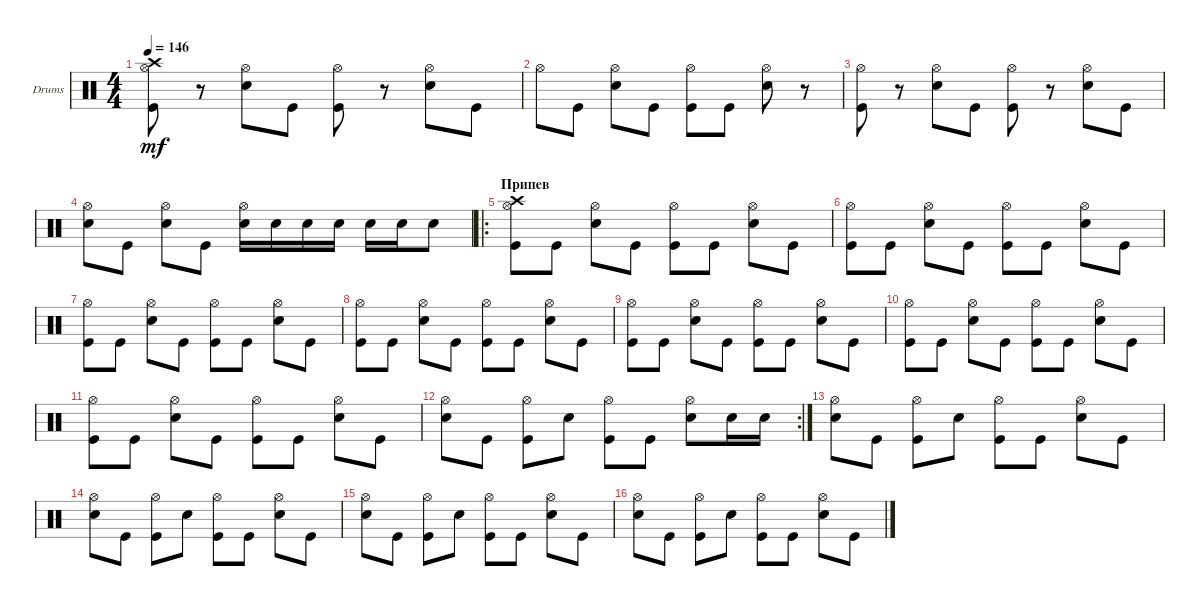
\defaultSystemsLayout 4
\bracketExtendMode groupsimilarinstruments
\firstSystemTrackNameOrientation horizontal
\otherSystemsTrackNameOrientation horizontal
\track ("Drumkit" "Drums") {instrument percussion}
\staff {score}
\articulation defaults
\ts (4 4)
\tempo 146
\clef neutral
\ks c
("Kick (hit)" "Hi-Hat (open)" "Crash high (hit)").8{dy mf} r.8 ("Snare (hit) 2" "Hi-Hat (open)").8 "Kick (hit)".8 ("Kick (hit)" "Hi-Hat (open)").8 r.8 ("Snare (hit) 2" "Hi-Hat (open)").8 "Kick (hit)".8 |
"Hi-Hat (open)".8 "Kick (hit)".8 ("Snare (hit) 2" "Hi-Hat (open)").8 "Kick (hit)".8 ("Hi-Hat (open)" "Kick (hit)").8 "Kick (hit)".8 ("Snare (hit) 2" "Hi-Hat (open)").8 r.8 |
("Kick (hit)" "Hi-Hat (open)").8 r.8 ("Snare (hit) 2" "Hi-Hat (open)").8 "Kick (hit)".8 ("Kick (hit)" "Hi-Hat (open)").8 r.8 ("Snare (hit) 2" "Hi-Hat (open)").8 "Kick (hit)".8 |
("Snare (hit) 2" "Hi-Hat (open)").8 "Kick (hit)".8 ("Snare (hit) 2" "Hi-Hat (open)").8 "Kick (hit)".8 ("Snare (hit) 2" "Hi-Hat (open)").16 "Snare (hit) 2".16 "Snare (hit) 2".16 "Snare (hit) 2".16 "Snare (hit) 2".16 "Snare (hit) 2".16 "Snare (hit) 2".8 |
\ro
\section ("" "Припев")
("Kick (hit)" "Crash high (hit)" "Hi-Hat (open)").8 "Kick (hit)".8 ("Snare (hit) 2" "Hi-Hat (open)").8 "Kick (hit)".8 ("Kick (hit)" "Hi-Hat (open)").8 "Kick (hit)".8 ("Snare (hit) 2" "Hi-Hat (open)").8 "Kick (hit)".8 |
("Kick (hit)" "Hi-Hat (open)").8 "Kick (hit)".8 ("Snare (hit) 2" "Hi-Hat (open)").8 "Kick (hit)".8 ("Kick (hit)" "Hi-Hat (open)").8 "Kick (hit)".8 ("Snare (hit) 2" "Hi-Hat (open)").8 "Kick (hit)".8 |
("Kick (hit)" "Hi-Hat (open)").8 "Kick (hit)".8 ("Snare (hit) 2" "Hi-Hat (open)").8 "Kick (hit)".8 ("Kick (hit)" "Hi-Hat (open)").8 "Kick (hit)".8 ("Snare (hit) 2" "Hi-Hat (open)").8 "Kick (hit)".8 |
("Kick (hit)" "Hi-Hat (open)").8 "Kick (hit)".8 ("Snare (hit) 2" "Hi-Hat (open)").8 "Kick (hit)".8 ("Kick (hit)" "Hi-Hat (open)").8 "Kick (hit)".8 ("Snare (hit) 2" "Hi-Hat (open)").8 "Kick (hit)".8 |
("Kick (hit)" "Hi-Hat (open)").8 "Kick (hit)".8 ("Snare (hit) 2" "Hi-Hat (open)").8 "Kick (hit)".8 ("Kick (hit)" "Hi-Hat (open)").8 "Kick (hit)".8 ("Snare (hit) 2" "Hi-Hat (open)").8 "Kick (hit)".8 |
("Kick (hit)" "Hi-Hat (open)").8 "Kick (hit)".8 ("Snare (hit) 2" "Hi-Hat (open)").8 "Kick (hit)".8 ("Kick (hit)" "Hi-Hat (open)").8 "Kick (hit)".8 ("Snare (hit) 2" "Hi-Hat (open)").8 "Kick (hit)".8 |
("Kick (hit)" "Hi-Hat (open)").8 "Kick (hit)".8 ("Snare (hit) 2" "Hi-Hat (open)").8 "Kick (hit)".8 ("Kick (hit)" "Hi-Hat (open)").8 "Kick (hit)".8 ("Snare (hit) 2" "Hi-Hat (open)").8 "Kick (hit)".8 |
\rc 2
("Snare (hit) 2" "Hi-Hat (open)").8 "Kick (hit)".8 ("Kick (hit)" "Hi-Hat (open)").8 "Snare (hit) 2".8 ("Kick (hit)" "Hi-Hat (open)").8 "Kick (hit)".8 ("Snare (hit) 2" "Hi-Hat (open)").8 "Snare (hit) 2".16 "Snare (hit) 2".16 |
("Snare (hit) 2" "Hi-Hat (open)").8 "Kick (hit)".8 ("Kick (hit)" "Hi-Hat (open)").8 "Snare (hit) 2".8 ("Kick (hit)" "Hi-Hat (open)").8 "Kick (hit)".8 ("Snare (hit) 2" "Hi-Hat (open)").8 "Kick (hit)".8 |
("Snare (hit) 2" "Hi-Hat (open)").8 "Kick (hit)".8 ("Kick (hit)" "Hi-Hat (open)").8 "Snare (hit) 2".8 ("Kick (hit)" "Hi-Hat (open)").8 "Kick (hit)".8 ("Snare (hit) 2" "Hi-Hat (open)").8 "Kick (hit)".8 |
("Snare (hit) 2" "Hi-Hat (open)").8 "Kick (hit)".8 ("Kick (hit)" "Hi-Hat (open)").8 "Snare (hit) 2".8 ("Kick (hit)" "Hi-Hat (open)").8 "Kick (hit)".8 ("Snare (hit) 2" "Hi-Hat (open)").8 "Kick (hit)".8 |
("Snare (hit) 2" "Hi-Hat (open)").8 "Kick (hit)".8 ("Kick (hit)" "Hi-Hat (open)").8 "Snare (hit) 2".8 ("Kick (hit)" "Hi-Hat (open)").8 "Kick (hit)".8 ("Snare (hit) 2" "Hi-Hat (open)").8 "Kick (hit)".8
